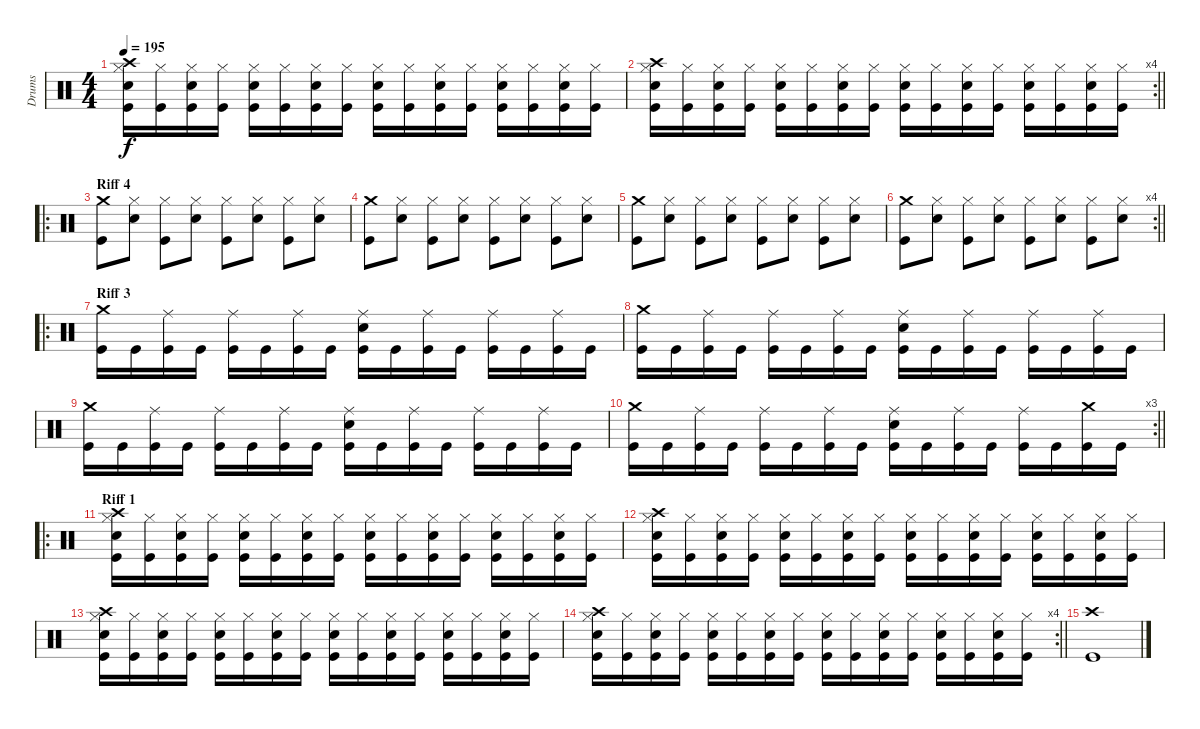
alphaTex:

\track ("Drums" "Drums") {instrument percussion}
\staff {score}
\articulation defaults
\ts (4 4)
\tempo 195
\clef neutral
\ks c
("Crash high (hit)" "Hi-Hat (closed)" "Snare (hit) 2" "Kick (hit)").16{dy f} ("Hi-Hat (closed)" "Kick (hit)").16 ("Hi-Hat (closed)" "Snare (hit) 2" "Kick (hit)").16 ("Hi-Hat (closed)" "Kick (hit)").16 ("Hi-Hat (closed)" "Snare (hit) 2" "Kick (hit)").16 ("Hi-Hat (closed)" "Kick (hit)").16 ("Hi-Hat (closed)" "Snare (hit) 2" "Kick (hit)").16 ("Hi-Hat (closed)" "Kick (hit)").16 ("Hi-Hat (closed)" "Snare (hit) 2" "Kick (hit)").16 ("Hi-Hat (closed)" "Kick (hit)").16 ("Hi-Hat (closed)" "Snare (hit) 2" "Kick (hit)").16 ("Hi-Hat (closed)" "Kick (hit)").16 ("Hi-Hat (closed)" "Snare (hit) 2" "Kick (hit)").16 ("Hi-Hat (closed)" "Kick (hit)").16 ("Hi-Hat (closed)" "Snare (hit) 2" "Kick (hit)").16 ("Hi-Hat (closed)" "Kick (hit)").16 |
\rc 4
\barLineRight lightlight
("Crash high (hit)" "Hi-Hat (closed)" "Snare (hit) 2" "Kick (hit)").16 ("Hi-Hat (closed)" "Kick (hit)").16 ("Hi-Hat (closed)" "Snare (hit) 2" "Kick (hit)").16 ("Hi-Hat (closed)" "Kick (hit)").16 ("Hi-Hat (closed)" "Snare (hit) 2" "Kick (hit)").16 ("Hi-Hat (closed)" "Kick (hit)").16 ("Hi-Hat (closed)" "Snare (hit) 2" "Kick (hit)").16 ("Hi-Hat (closed)" "Kick (hit)").16 ("Hi-Hat (closed)" "Snare (hit) 2" "Kick (hit)").16 ("Hi-Hat (closed)" "Kick (hit)").16 ("Hi-Hat (closed)" "Snare (hit) 2" "Kick (hit)").16 ("Hi-Hat (closed)" "Kick (hit)").16 ("Hi-Hat (closed)" "Snare (hit) 2" "Kick (hit)").16 ("Hi-Hat (closed)" "Kick (hit)").16 ("Hi-Hat (closed)" "Snare (hit) 2" "Kick (hit)").16 ("Hi-Hat (closed)" "Kick (hit)").16 |
\ro
\section ("" "Riff 4")
("Crash medium (hit)" "Kick (hit)").8 ("Hi-Hat (closed)" "Snare (hit) 2").8 ("Hi-Hat (closed)" "Kick (hit)").8 ("Hi-Hat (closed)" "Snare (hit) 2").8 ("Hi-Hat (closed)" "Kick (hit)").8 ("Hi-Hat (closed)" "Snare (hit) 2").8 ("Hi-Hat (closed)" "Kick (hit)").8 ("Hi-Hat (closed)" "Snare (hit) 2").8 |
("Crash medium (hit)" "Kick (hit)").8 ("Hi-Hat (closed)" "Snare (hit) 2").8 ("Hi-Hat (closed)" "Kick (hit)").8 ("Hi-Hat (closed)" "Snare (hit) 2").8 ("Hi-Hat (closed)" "Kick (hit)").8 ("Hi-Hat (closed)" "Snare (hit) 2").8 ("Hi-Hat (closed)" "Kick (hit)").8 ("Hi-Hat (closed)" "Snare (hit) 2").8 |
("Crash medium (hit)" "Kick (hit)").8 ("Hi-Hat (closed)" "Snare (hit) 2").8 ("Hi-Hat (closed)" "Kick (hit)").8 ("Hi-Hat (closed)" "Snare (hit) 2").8 ("Hi-Hat (closed)" "Kick (hit)").8 ("Hi-Hat (closed)" "Snare (hit) 2").8 ("Hi-Hat (closed)" "Kick (hit)").8 ("Hi-Hat (closed)" "Snare (hit) 2").8 |
\rc 4
\barLineRight lightlight
("Crash medium (hit)" "Kick (hit)").8 ("Hi-Hat (closed)" "Snare (hit) 2").8 ("Hi-Hat (closed)" "Kick (hit)").8 ("Hi-Hat (closed)" "Snare (hit) 2").8 ("Hi-Hat (closed)" "Kick (hit)").8 ("Hi-Hat (closed)" "Snare (hit) 2").8 ("Hi-Hat (closed)" "Kick (hit)").8 ("Hi-Hat (closed)" "Snare (hit) 2").8 |
\ro
\section ("" "Riff 3")
("Crash medium (hit)" "Kick (hit)").16 "Kick (hit)".16 ("Ride (middle)" "Kick (hit)").16 "Kick (hit)".16 ("Ride (middle)" "Kick (hit)").16 "Kick (hit)".16 ("Ride (middle)" "Kick (hit)").16 "Kick (hit)".16 ("Ride (middle)" "Snare (hit) 2" "Kick (hit)").16 "Kick (hit)".16 ("Ride (middle)" "Kick (hit)").16 "Kick (hit)".16 ("Ride (middle)" "Kick (hit)").16 "Kick (hit)".16 ("Ride (middle)" "Kick (hit)").16 "Kick (hit)".16 |
("Crash medium (hit)" "Kick (hit)").16 "Kick (hit)".16 ("Ride (middle)" "Kick (hit)").16 "Kick (hit)".16 ("Ride (middle)" "Kick (hit)").16 "Kick (hit)".16 ("Ride (middle)" "Kick (hit)").16 "Kick (hit)".16 ("Ride (middle)" "Snare (hit) 2" "Kick (hit)").16 "Kick (hit)".16 ("Ride (middle)" "Kick (hit)").16 "Kick (hit)".16 ("Ride (middle)" "Kick (hit)").16 "Kick (hit)".16 ("Ride (middle)" "Kick (hit)").16 "Kick (hit)".16 |
("Crash medium (hit)" "Kick (hit)").16 "Kick (hit)".16 ("Ride (middle)" "Kick (hit)").16 "Kick (hit)".16 ("Ride (middle)" "Kick (hit)").16 "Kick (hit)".16 ("Ride (middle)" "Kick (hit)").16 "Kick (hit)".16 ("Ride (middle)" "Snare (hit) 2" "Kick (hit)").16 "Kick (hit)".16 ("Ride (middle)" "Kick (hit)").16 "Kick (hit)".16 ("Ride (middle)" "Kick (hit)").16 "Kick (hit)".16 ("Ride (middle)" "Kick (hit)").16 "Kick (hit)".16 |
\rc 3
\barLineRight lightlight
("Crash medium (hit)" "Kick (hit)").16 "Kick (hit)".16 ("Ride (middle)" "Kick (hit)").16 "Kick (hit)".16 ("Ride (middle)" "Kick (hit)").16 "Kick (hit)".16 ("Ride (middle)" "Kick (hit)").16 "Kick (hit)".16 ("Ride (middle)" "Snare (hit) 2" "Kick (hit)").16 "Kick (hit)".16 ("Ride (middle)" "Kick (hit)").16 "Kick (hit)".16 ("Ride (middle)" "Kick (hit)").16 "Kick (hit)".16 ("Crash medium (hit)" "Kick (hit)").16 "Kick (hit)".16 |
\ro
\section ("" "Riff 1")
("Crash high (hit)" "Hi-Hat (closed)" "Snare (hit) 2" "Kick (hit)").16 ("Hi-Hat (closed)" "Kick (hit)").16 ("Hi-Hat (closed)" "Snare (hit) 2" "Kick (hit)").16 ("Hi-Hat (closed)" "Kick (hit)").16 ("Hi-Hat (closed)" "Snare (hit) 2" "Kick (hit)").16 ("Hi-Hat (closed)" "Kick (hit)").16 ("Hi-Hat (closed)" "Snare (hit) 2" "Kick (hit)").16 ("Hi-Hat (closed)" "Kick (hit)").16 ("Hi-Hat (closed)" "Snare (hit) 2" "Kick (hit)").16 ("Hi-Hat (closed)" "Kick (hit)").16 ("Hi-Hat (closed)" "Snare (hit) 2" "Kick (hit)").16 ("Hi-Hat (closed)" "Kick (hit)").16 ("Hi-Hat (closed)" "Snare (hit) 2" "Kick (hit)").16 ("Hi-Hat (closed)" "Kick (hit)").16 ("Hi-Hat (closed)" "Snare (hit) 2" "Kick (hit)").16 ("Hi-Hat (closed)" "Kick (hit)").16 |
("Crash high (hit)" "Hi-Hat (closed)" "Snare (hit) 2" "Kick (hit)").16 ("Hi-Hat (closed)" "Kick (hit)").16 ("Hi-Hat (closed)" "Snare (hit) 2" "Kick (hit)").16 ("Hi-Hat (closed)" "Kick (hit)").16 ("Hi-Hat (closed)" "Snare (hit) 2" "Kick (hit)").16 ("Hi-Hat (closed)" "Kick (hit)").16 ("Hi-Hat (closed)" "Snare (hit) 2" "Kick (hit)").16 ("Hi-Hat (closed)" "Kick (hit)").16 ("Hi-Hat (closed)" "Snare (hit) 2" "Kick (hit)").16 ("Hi-Hat (closed)" "Kick (hit)").16 ("Hi-Hat (closed)" "Snare (hit) 2" "Kick (hit)").16 ("Hi-Hat (closed)" "Kick (hit)").16 ("Hi-Hat (closed)" "Snare (hit) 2" "Kick (hit)").16 ("Hi-Hat (closed)" "Kick (hit)").16 ("Hi-Hat (closed)" "Snare (hit) 2" "Kick (hit)").16 ("Hi-Hat (closed)" "Kick (hit)").16 |
("Crash high (hit)" "Hi-Hat (closed)" "Snare (hit) 2" "Kick (hit)").16 ("Hi-Hat (closed)" "Kick (hit)").16 ("Hi-Hat (closed)" "Snare (hit) 2" "Kick (hit)").16 ("Hi-Hat (closed)" "Kick (hit)").16 ("Hi-Hat (closed)" "Snare (hit) 2" "Kick (hit)").16 ("Hi-Hat (closed)" "Kick (hit)").16 ("Hi-Hat (closed)" "Snare (hit) 2" "Kick (hit)").16 ("Hi-Hat (closed)" "Kick (hit)").16 ("Hi-Hat (closed)" "Snare (hit) 2" "Kick (hit)").16 ("Hi-Hat (closed)" "Kick (hit)").16 ("Hi-Hat (closed)" "Snare (hit) 2" "Kick (hit)").16 ("Hi-Hat (closed)" "Kick (hit)").16 ("Hi-Hat (closed)" "Snare (hit) 2" "Kick (hit)").16 ("Hi-Hat (closed)" "Kick (hit)").16 ("Hi-Hat (closed)" "Snare (hit) 2" "Kick (hit)").16 ("Hi-Hat (closed)" "Kick (hit)").16 |
\rc 4
\barLineRight lightlight
("Crash high (hit)" "Hi-Hat (closed)" "Snare (hit) 2" "Kick (hit)").16 ("Hi-Hat (closed)" "Kick (hit)").16 ("Hi-Hat (closed)" "Snare (hit) 2" "Kick (hit)").16 ("Hi-Hat (closed)" "Kick (hit)").16 ("Hi-Hat (closed)" "Snare (hit) 2" "Kick (hit)").16 ("Hi-Hat (closed)" "Kick (hit)").16 ("Hi-Hat (closed)" "Snare (hit) 2" "Kick (hit)").16 ("Hi-Hat (closed)" "Kick (hit)").16 ("Hi-Hat (closed)" "Snare (hit) 2" "Kick (hit)").16 ("Hi-Hat (closed)" "Kick (hit)").16 ("Hi-Hat (closed)" "Snare (hit) 2" "Kick (hit)").16 ("Hi-Hat (closed)" "Kick (hit)").16 ("Hi-Hat (closed)" "Snare (hit) 2" "Kick (hit)").16 ("Hi-Hat (closed)" "Kick (hit)").16 ("Hi-Hat (closed)" "Snare (hit) 2" "Kick (hit)").16 ("Hi-Hat (closed)" "Kick (hit)").16 |
("Crash high (hit)" "Kick (hit)").1
